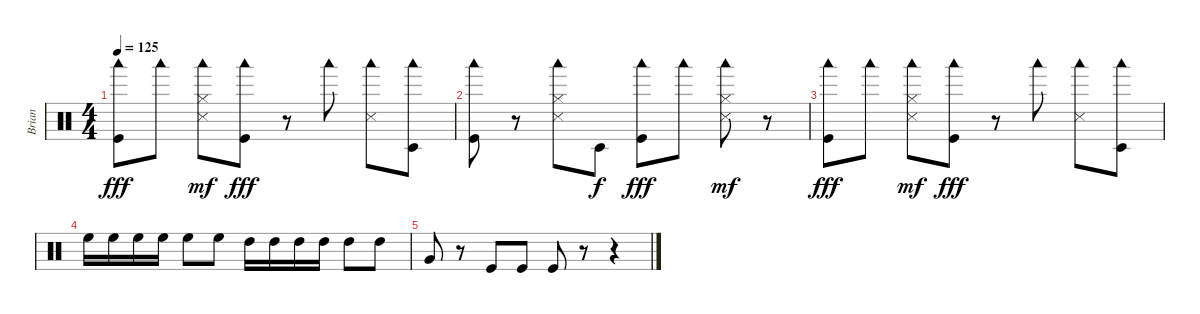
\track ("Brian" "Brian") {instrument percussion}
\staff {score}
\articulation defaults
\ts (4 4)
\tempo 125
\clef neutral
\ks c
("Woodblock low (hit)" "Kick (hit)").8{dy fff} "Woodblock low (hit)".8 ("Woodblock low (hit)" "Hi-Hat (closed)" "Snare (side stick) 3").8{dy mf} ("Woodblock low (hit)" "Kick (hit)").8{dy fff} r.8 "Woodblock low (hit)".8 ("Woodblock low (hit)" "Snare (side stick) 3").8 ("Woodblock low (hit)" "Timbale low (hit)").8 |
("Woodblock low (hit)" "Kick (hit)").8 r.8 ("Woodblock low (hit)" "Hi-Hat (closed)" "Snare (side stick) 3").8 "Timbale low (hit)".8{dy f} ("Woodblock low (hit)" "Kick (hit)").8{dy fff} "Woodblock low (hit)".8 ("Woodblock low (hit)" "Hi-Hat (closed)" "Snare (side stick) 3").8{dy mf} r.8 |
("Woodblock low (hit)" "Kick (hit)").8{dy fff} "Woodblock low (hit)".8 ("Woodblock low (hit)" "Hi-Hat (closed)" "Snare (side stick) 3").8{dy mf} ("Woodblock low (hit)" "Kick (hit)").8{dy fff} r.8 "Woodblock low (hit)".8 ("Woodblock low (hit)" "Snare (side stick) 3").8 ("Woodblock low (hit)" "Timbale low (hit)").8 |
"High Floor Tom (hit)".16 "High Floor Tom (hit)".16 "High Floor Tom (hit)".16 "High Floor Tom (hit)".16 "High Floor Tom (hit)".8 "High Floor Tom (hit)".8 "High Tom (hit)".16 "High Tom (hit)".16 "High Tom (hit)".16 "High Tom (hit)".16 "High Tom (hit)".8 "High Tom (hit)".8 |
"Very Low Tom (hit)".8 r.8 "Kick (hit)".8 "Kick (hit)".8 "Kick (hit)".8 r.8 r.4
